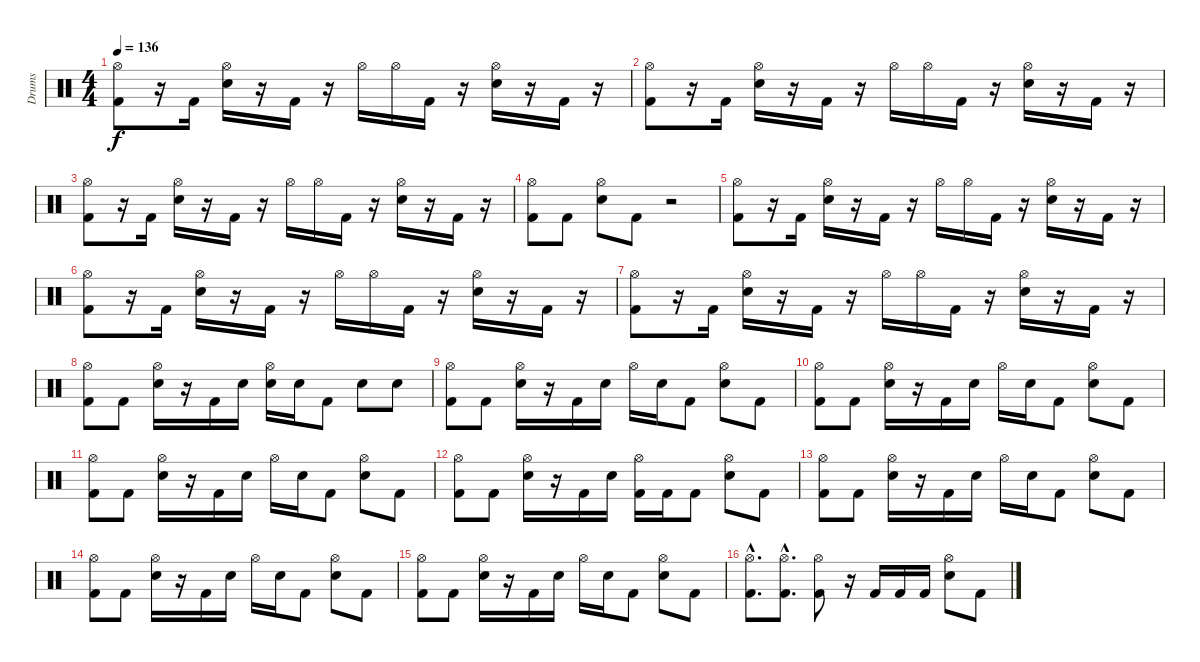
\track ("Drums" "Drums") {instrument percussion}
\staff {score}
\articulation defaults
\ts (4 4)
\tempo 136
\clef neutral
\ks c
("Hi-Hat (open)" "Kick (hit) 2").8{dy f} r.16 "Kick (hit) 2".16 ("Hi-Hat (open)" "Electric Snare (hit)").16 r.16 "Kick (hit) 2".16 r.16 "Hi-Hat (open)".16 "Hi-Hat (open)".16 "Kick (hit) 2".16 r.16 ("Hi-Hat (open)" "Electric Snare (hit)").16 r.16 "Kick (hit) 2".16 r.16 |
("Hi-Hat (open)" "Kick (hit) 2").8 r.16 "Kick (hit) 2".16 ("Hi-Hat (open)" "Electric Snare (hit)").16 r.16 "Kick (hit) 2".16 r.16 "Hi-Hat (open)".16 "Hi-Hat (open)".16 "Kick (hit) 2".16 r.16 ("Hi-Hat (open)" "Electric Snare (hit)").16 r.16 "Kick (hit) 2".16 r.16 |
("Hi-Hat (open)" "Kick (hit) 2").8 r.16 "Kick (hit) 2".16 ("Hi-Hat (open)" "Electric Snare (hit)").16 r.16 "Kick (hit) 2".16 r.16 "Hi-Hat (open)".16 "Hi-Hat (open)".16 "Kick (hit) 2".16 r.16 ("Hi-Hat (open)" "Electric Snare (hit)").16 r.16 "Kick (hit) 2".16 r.16 |
("Hi-Hat (open)" "Kick (hit) 2").8 "Kick (hit) 2".8 ("Hi-Hat (open)" "Electric Snare (hit)").8 "Kick (hit) 2".8 r.2 |
("Hi-Hat (open)" "Kick (hit) 2").8 r.16 "Kick (hit) 2".16 ("Hi-Hat (open)" "Electric Snare (hit)").16 r.16 "Kick (hit) 2".16 r.16 "Hi-Hat (open)".16 "Hi-Hat (open)".16 "Kick (hit) 2".16 r.16 ("Hi-Hat (open)" "Electric Snare (hit)").16 r.16 "Kick (hit) 2".16 r.16 |
("Hi-Hat (open)" "Kick (hit) 2").8 r.16 "Kick (hit) 2".16 ("Hi-Hat (open)" "Electric Snare (hit)").16 r.16 "Kick (hit) 2".16 r.16 "Hi-Hat (open)".16 "Hi-Hat (open)".16 "Kick (hit) 2".16 r.16 ("Hi-Hat (open)" "Electric Snare (hit)").16 r.16 "Kick (hit) 2".16 r.16 |
("Hi-Hat (open)" "Kick (hit) 2").8 r.16 "Kick (hit) 2".16 ("Hi-Hat (open)" "Electric Snare (hit)").16 r.16 "Kick (hit) 2".16 r.16 "Hi-Hat (open)".16 "Hi-Hat (open)".16 "Kick (hit) 2".16 r.16 ("Hi-Hat (open)" "Electric Snare (hit)").16 r.16 "Kick (hit) 2".16 r.16 |
("Hi-Hat (open)" "Kick (hit) 2").8 "Kick (hit) 2".8 ("Hi-Hat (open)" "Electric Snare (hit)").16 r.16 "Kick (hit) 2".16 "Electric Snare (hit)".16 ("Hi-Hat (open)" "Electric Snare (hit)").16 "Electric Snare (hit)".16 "Kick (hit) 2".8 "Electric Snare (hit)".8 "Electric Snare (hit)".8 |
("Hi-Hat (open)" "Kick (hit) 2").8 "Kick (hit) 2".8 ("Hi-Hat (open)" "Electric Snare (hit)").16 r.16 "Kick (hit) 2".16 "Electric Snare (hit)".16 "Hi-Hat (open)".16 "Electric Snare (hit)".16 "Kick (hit) 2".8 ("Hi-Hat (open)" "Electric Snare (hit)").8 "Kick (hit) 2".8 |
("Hi-Hat (open)" "Kick (hit) 2").8 "Kick (hit) 2".8 ("Hi-Hat (open)" "Electric Snare (hit)").16 r.16 "Kick (hit) 2".16 "Electric Snare (hit)".16 "Hi-Hat (open)".16 "Electric Snare (hit)".16 "Kick (hit) 2".8 ("Hi-Hat (open)" "Electric Snare (hit)").8 "Kick (hit) 2".8 |
("Hi-Hat (open)" "Kick (hit) 2").8 "Kick (hit) 2".8 ("Hi-Hat (open)" "Electric Snare (hit)").16 r.16 "Kick (hit) 2".16 "Electric Snare (hit)".16 "Hi-Hat (open)".16 "Electric Snare (hit)".16 "Kick (hit) 2".8 ("Hi-Hat (open)" "Electric Snare (hit)").8 "Kick (hit) 2".8 |
("Hi-Hat (open)" "Kick (hit) 2").8 "Kick (hit) 2".8 ("Hi-Hat (open)" "Electric Snare (hit)").16 r.16 "Kick (hit) 2".16 "Electric Snare (hit)".16 ("Hi-Hat (open)" "Kick (hit) 2").16 "Kick (hit) 2".16 "Kick (hit) 2".8 ("Hi-Hat (open)" "Electric Snare (hit)").8 "Kick (hit) 2".8 |
("Hi-Hat (open)" "Kick (hit) 2").8 "Kick (hit) 2".8 ("Hi-Hat (open)" "Electric Snare (hit)").16 r.16 "Kick (hit) 2".16 "Electric Snare (hit)".16 "Hi-Hat (open)".16 "Electric Snare (hit)".16 "Kick (hit) 2".8 ("Hi-Hat (open)" "Electric Snare (hit)").8 "Kick (hit) 2".8 |
("Hi-Hat (open)" "Kick (hit) 2").8 "Kick (hit) 2".8 ("Hi-Hat (open)" "Electric Snare (hit)").16 r.16 "Kick (hit) 2".16 "Electric Snare (hit)".16 "Hi-Hat (open)".16 "Electric Snare (hit)".16 "Kick (hit) 2".8 ("Hi-Hat (open)" "Electric Snare (hit)").8 "Kick (hit) 2".8 |
("Hi-Hat (open)" "Kick (hit) 2").8 "Kick (hit) 2".8 ("Hi-Hat (open)" "Electric Snare (hit)").16 r.16 "Kick (hit) 2".16 "Electric Snare (hit)".16 "Hi-Hat (open)".16 "Electric Snare (hit)".16 "Kick (hit) 2".8 ("Hi-Hat (open)" "Electric Snare (hit)").8 "Kick (hit) 2".8 |
("Hi-Hat (open)"{hac} "Kick (hit) 2"{hac}).8{d} ("Hi-Hat (open)"{hac} "Kick (hit) 2"{hac}).8{d} ("Hi-Hat (open)" "Kick (hit) 2").8 r.16 "Kick (hit) 2".16 "Kick (hit) 2".16 "Kick (hit) 2".16 ("Hi-Hat (open)" "Electric Snare (hit)").8 "Kick (hit) 2".8
